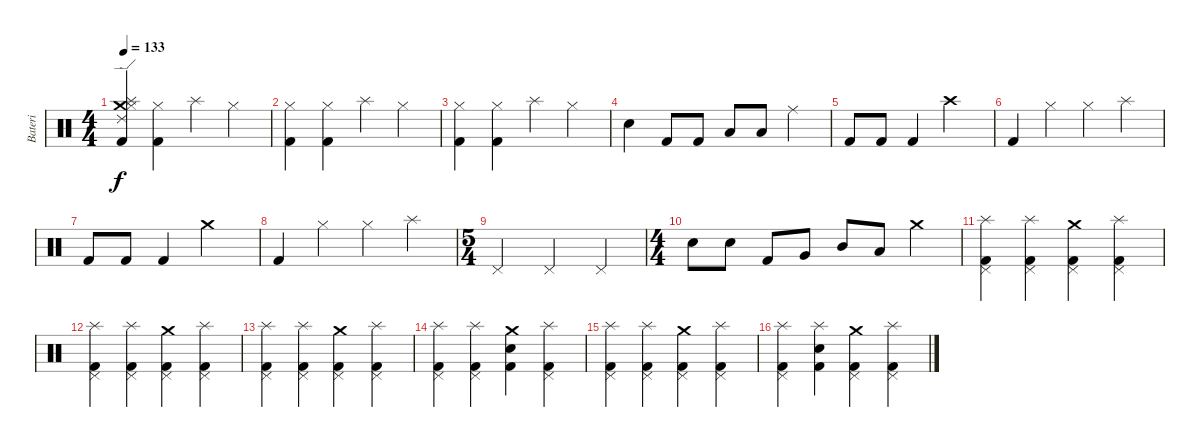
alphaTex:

\track ("Bateri" "Bateri") {instrument percussion}
\staff {score}
\articulation defaults
\ts (4 4)
\tempo 133
\clef neutral
\ks c
("Ride (edge) 2" "Splash (hit)" "Crash medium (hit)" "Hi-Hat (closed)" "Kick (hit) 2").4{dy f} ("Hi-Hat (closed)" "Kick (hit) 2").4 "Splash (hit)".4 "Hi-Hat (closed)".4 |
("Hi-Hat (closed)" "Kick (hit) 2").4 ("Hi-Hat (closed)" "Kick (hit) 2").4 "Splash (hit)".4 "Hi-Hat (closed)".4 |
("Hi-Hat (closed)" "Kick (hit) 2").4 ("Hi-Hat (closed)" "Kick (hit) 2").4 "Splash (hit)".4 "Hi-Hat (closed)".4 |
"Snare (hit) 2".4 "Kick (hit) 2".8 "Kick (hit) 2".8 "Low Tom (hit)".8 "Low Tom (hit)".8 "Ride (middle)".4 |
"Kick (hit) 2".8 "Kick (hit) 2".8 "Kick (hit) 2".4 "Crash high (hit)".2 |
"Kick (hit) 2".4 "Hi-Hat (closed)".4 "Hi-Hat (closed)".4 "Splash (hit)".4 |
"Kick (hit) 2".8 "Kick (hit) 2".8 "Kick (hit) 2".4 "Crash medium (hit)".2 |
"Kick (hit) 2".4 "Hi-Hat (closed)".4 "Hi-Hat (closed)".4 "Splash (hit)".4 |
\ts (5 4)
"Pedal Hi-Hat (hit)".2 "Pedal Hi-Hat (hit)".2 "Pedal Hi-Hat (hit)".4 |
\ts (4 4)
"Electric Snare (hit)".8 "Snare (hit) 2".8 "Kick (hit) 2".8 "Very Low Tom (hit)".8 "Mid Tom (hit)".8 "Low Tom (hit)".8 "Crash medium (hit)".4 |
("Splash (hit)" "Pedal Hi-Hat (hit)" "Kick (hit) 2").4 ("Splash (hit)" "Pedal Hi-Hat (hit)" "Kick (hit) 2").4 ("Crash medium (hit)" "Pedal Hi-Hat (hit)" "Kick (hit) 2").4 ("Splash (hit)" "Pedal Hi-Hat (hit)" "Kick (hit) 2").4 |
("Splash (hit)" "Pedal Hi-Hat (hit)" "Kick (hit) 2").4 ("Splash (hit)" "Pedal Hi-Hat (hit)" "Kick (hit) 2").4 ("Crash medium (hit)" "Pedal Hi-Hat (hit)" "Kick (hit) 2").4 ("Splash (hit)" "Pedal Hi-Hat (hit)" "Kick (hit) 2").4 |
("Splash (hit)" "Pedal Hi-Hat (hit)" "Kick (hit) 2").4 ("Splash (hit)" "Pedal Hi-Hat (hit)" "Kick (hit) 2").4 ("Crash medium (hit)" "Pedal Hi-Hat (hit)" "Kick (hit) 2").4 ("Splash (hit)" "Pedal Hi-Hat (hit)" "Kick (hit) 2").4 |
("Splash (hit)" "Pedal Hi-Hat (hit)" "Kick (hit) 2").4 ("Splash (hit)" "Pedal Hi-Hat (hit)" "Kick (hit) 2").4 ("Crash medium (hit)" "Snare (hit)" "Kick (hit) 2").4 ("Splash (hit)" "Pedal Hi-Hat (hit)" "Kick (hit) 2").4 |
("Splash (hit)" "Pedal Hi-Hat (hit)" "Kick (hit) 2").4 ("Splash (hit)" "Pedal Hi-Hat (hit)" "Kick (hit) 2").4 ("Crash medium (hit)" "Pedal Hi-Hat (hit)" "Kick (hit) 2").4 ("Splash (hit)" "Pedal Hi-Hat (hit)" "Kick (hit) 2").4 |
("Splash (hit)" "Pedal Hi-Hat (hit)" "Kick (hit) 2").4 ("Splash (hit)" "Snare (hit)" "Kick (hit) 2").4 ("Crash medium (hit)" "Pedal Hi-Hat (hit)" "Kick (hit) 2").4 ("Splash (hit)" "Pedal Hi-Hat (hit)" "Kick (hit) 2").4
